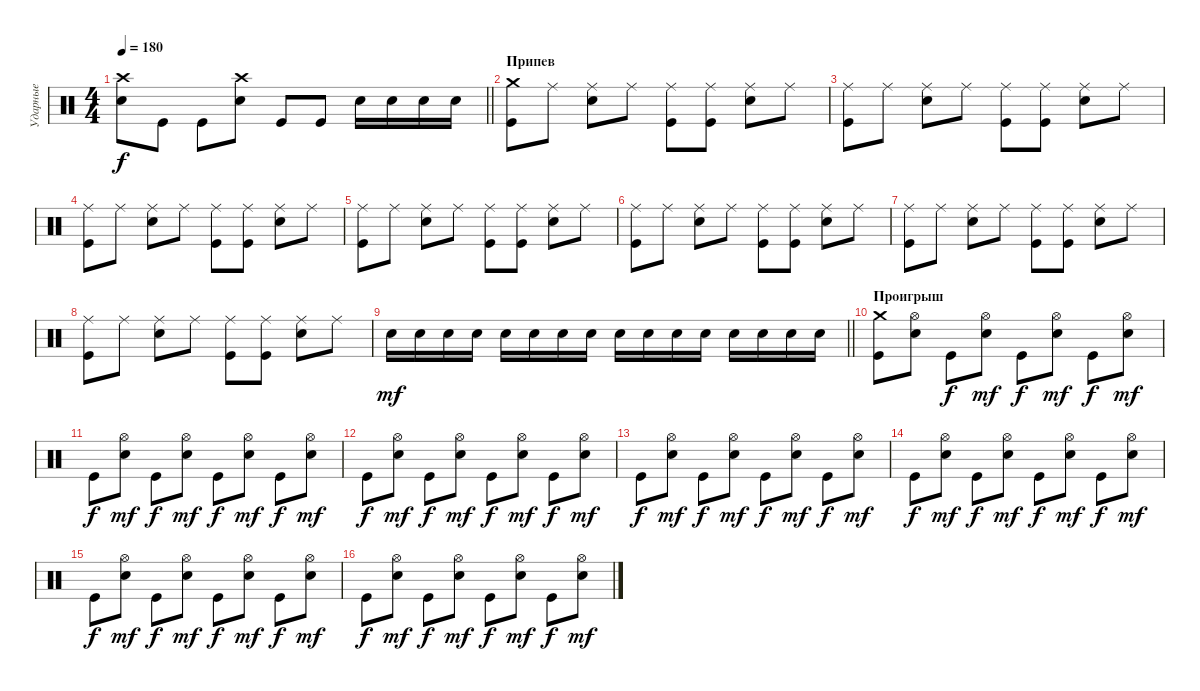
\track ("Ударные" "Ударные") {instrument percussion}
\staff {score}
\articulation defaults
\ts (4 4)
\tempo 180
\clef neutral
\barLineRight lightlight
\ks c
("Electric Snare (hit)" "Crash high (hit)").8{dy f} "Kick (hit)".8 "Kick (hit)".8 ("Electric Snare (hit)" "Crash high (hit)").8 "Kick (hit)".8 "Kick (hit)".8 "Electric Snare (hit)".16 "Electric Snare (hit)".16 "Electric Snare (hit)".16 "Electric Snare (hit)".16 |
\section ("" "Припев")
("Crash medium (hit)" "Kick (hit)").8 "Ride (middle)".8 ("Ride (middle)" "Electric Snare (hit)").8 "Ride (middle)".8 ("Ride (middle)" "Kick (hit)").8 ("Ride (middle)" "Kick (hit)").8 ("Ride (middle)" "Electric Snare (hit)").8 "Ride (middle)".8 |
("Ride (middle)" "Kick (hit)").8 "Ride (middle)".8 ("Ride (middle)" "Electric Snare (hit)").8 "Ride (middle)".8 ("Ride (middle)" "Kick (hit)").8 ("Ride (middle)" "Kick (hit)").8 ("Ride (middle)" "Electric Snare (hit)").8 "Ride (middle)".8 |
("Ride (middle)" "Kick (hit)").8 "Ride (middle)".8 ("Ride (middle)" "Electric Snare (hit)").8 "Ride (middle)".8 ("Ride (middle)" "Kick (hit)").8 ("Ride (middle)" "Kick (hit)").8 ("Ride (middle)" "Electric Snare (hit)").8 "Ride (middle)".8 |
("Ride (middle)" "Kick (hit)").8 "Ride (middle)".8 ("Ride (middle)" "Electric Snare (hit)").8 "Ride (middle)".8 ("Ride (middle)" "Kick (hit)").8 ("Ride (middle)" "Kick (hit)").8 ("Ride (middle)" "Electric Snare (hit)").8 "Ride (middle)".8 |
("Ride (middle)" "Kick (hit)").8 "Ride (middle)".8 ("Ride (middle)" "Electric Snare (hit)").8 "Ride (middle)".8 ("Ride (middle)" "Kick (hit)").8 ("Ride (middle)" "Kick (hit)").8 ("Ride (middle)" "Electric Snare (hit)").8 "Ride (middle)".8 |
("Ride (middle)" "Kick (hit)").8 "Ride (middle)".8 ("Ride (middle)" "Electric Snare (hit)").8 "Ride (middle)".8 ("Ride (middle)" "Kick (hit)").8 ("Ride (middle)" "Kick (hit)").8 ("Ride (middle)" "Electric Snare (hit)").8 "Ride (middle)".8 |
("Ride (middle)" "Kick (hit)").8 "Ride (middle)".8 ("Ride (middle)" "Electric Snare (hit)").8 "Ride (middle)".8 ("Ride (middle)" "Kick (hit)").8 ("Ride (middle)" "Kick (hit)").8 ("Ride (middle)" "Electric Snare (hit)").8 "Ride (middle)".8 |
\barLineRight lightlight "Electric Snare (hit)".16{dy mf} "Electric Snare (hit)".16 "Electric Snare (hit)".16 "Electric Snare (hit)".16 "Electric Snare (hit)".16 "Electric Snare (hit)".16 "Electric Snare (hit)".16 "Electric Snare (hit)".16 "Electric Snare (hit)".16 "Electric Snare (hit)".16 "Electric Snare (hit)".16 "Electric Snare (hit)".16 "Electric Snare (hit)".16 "Electric Snare (hit)".16 "Electric Snare (hit)".16 "Electric Snare (hit)".16
|
\section ("" "Проигрыш")
("Kick (hit)" "Crash medium (hit)").8 ("Electric Snare (hit)" "Hi-Hat (open)").8 "Kick (hit)".8{dy f} ("Electric Snare (hit)" "Hi-Hat (open)").8{dy mf} "Kick (hit)".8{dy f} ("Electric Snare (hit)" "Hi-Hat (open)").8{dy mf} "Kick (hit)".8{dy f} ("Electric Snare (hit)" "Hi-Hat (open)").8{dy mf} |
"Kick (hit)".8{dy f} ("Electric Snare (hit)" "Hi-Hat (open)").8{dy mf} "Kick (hit)".8{dy f} ("Electric Snare (hit)" "Hi-Hat (open)").8{dy mf} "Kick (hit)".8{dy f} ("Electric Snare (hit)" "Hi-Hat (open)").8{dy mf} "Kick (hit)".8{dy f} ("Electric Snare (hit)" "Hi-Hat (open)").8{dy mf} |
"Kick (hit)".8{dy f} ("Electric Snare (hit)" "Hi-Hat (open)").8{dy mf} "Kick (hit)".8{dy f} ("Electric Snare (hit)" "Hi-Hat (open)").8{dy mf} "Kick (hit)".8{dy f} ("Electric Snare (hit)" "Hi-Hat (open)").8{dy mf} "Kick (hit)".8{dy f} ("Electric Snare (hit)" "Hi-Hat (open)").8{dy mf} |
"Kick (hit)".8{dy f} ("Electric Snare (hit)" "Hi-Hat (open)").8{dy mf} "Kick (hit)".8{dy f} ("Electric Snare (hit)" "Hi-Hat (open)").8{dy mf} "Kick (hit)".8{dy f} ("Electric Snare (hit)" "Hi-Hat (open)").8{dy mf} "Kick (hit)".8{dy f} ("Electric Snare (hit)" "Hi-Hat (open)").8{dy mf} |
"Kick (hit)".8{dy f} ("Electric Snare (hit)" "Hi-Hat (open)").8{dy mf} "Kick (hit)".8{dy f} ("Electric Snare (hit)" "Hi-Hat (open)").8{dy mf} "Kick (hit)".8{dy f} ("Electric Snare (hit)" "Hi-Hat (open)").8{dy mf} "Kick (hit)".8{dy f} ("Electric Snare (hit)" "Hi-Hat (open)").8{dy mf} |
"Kick (hit)".8{dy f} ("Electric Snare (hit)" "Hi-Hat (open)").8{dy mf} "Kick (hit)".8{dy f} ("Electric Snare (hit)" "Hi-Hat (open)").8{dy mf} "Kick (hit)".8{dy f} ("Electric Snare (hit)" "Hi-Hat (open)").8{dy mf} "Kick (hit)".8{dy f} ("Electric Snare (hit)" "Hi-Hat (open)").8{dy mf} |
"Kick (hit)".8{dy f} ("Electric Snare (hit)" "Hi-Hat (open)").8{dy mf} "Kick (hit)".8{dy f} ("Electric Snare (hit)" "Hi-Hat (open)").8{dy mf} "Kick (hit)".8{dy f} ("Electric Snare (hit)" "Hi-Hat (open)").8{dy mf} "Kick (hit)".8{dy f} ("Electric Snare (hit)" "Hi-Hat (open)").8{dy mf}
